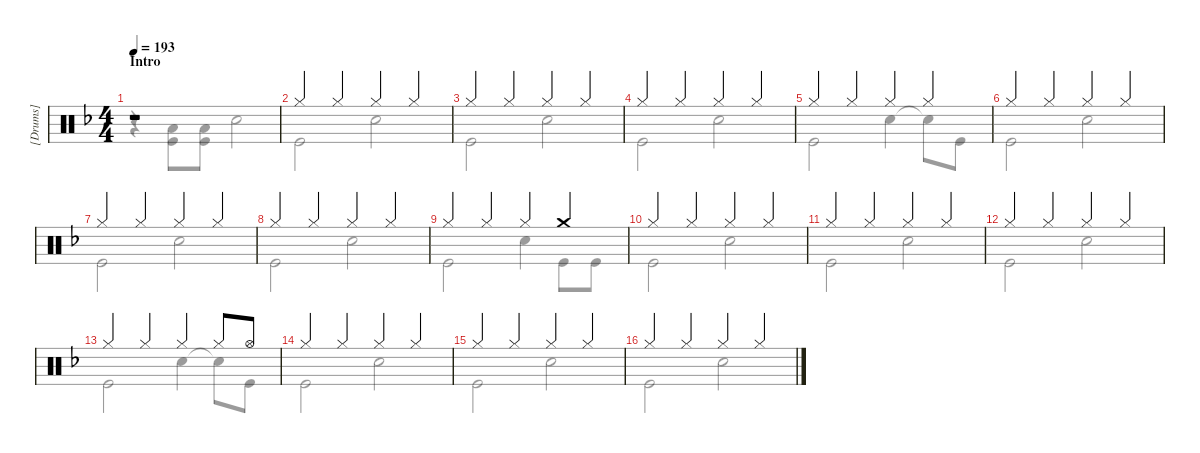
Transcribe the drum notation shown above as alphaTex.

\hideDynamics
\bracketExtendMode groupsimilarinstruments
\firstSystemTrackNameMode fullname
\otherSystemsTrackNameMode fullname
\otherSystemsTrackNameOrientation horizontal
\track ("[Drums]" "Drums") {instrument percussion}
\staff {score}
\articulation defaults
\voice
\ts (4 4)
\beaming (8 2 2 2 2)
\section ("" "Intro")
\tempo 193
\clef neutral
\ks f
r.1{dy ff} |
"Hi-Hat (closed)".4 "Hi-Hat (closed)".4 "Hi-Hat (closed)".4 "Hi-Hat (closed)".4 |
"Hi-Hat (closed)".4 "Hi-Hat (closed)".4 "Hi-Hat (closed)".4 "Hi-Hat (closed)".4 |
"Hi-Hat (closed)".4 "Hi-Hat (closed)".4 "Hi-Hat (closed)".4 "Hi-Hat (closed)".4 |
"Hi-Hat (closed)".4 "Hi-Hat (closed)".4 "Hi-Hat (closed)".4 "Hi-Hat (closed)".4 |
"Hi-Hat (closed)".4 "Hi-Hat (closed)".4 "Hi-Hat (closed)".4 "Hi-Hat (closed)".4 |
"Hi-Hat (closed)".4 "Hi-Hat (closed)".4 "Hi-Hat (closed)".4 "Hi-Hat (closed)".4 |
"Hi-Hat (closed)".4 "Hi-Hat (closed)".4 "Hi-Hat (closed)".4 "Hi-Hat (closed)".4 |
"Hi-Hat (closed)".4 "Hi-Hat (closed)".4 "Hi-Hat (closed)".4 "Crash medium (hit)".4 |
"Hi-Hat (closed)".4 "Hi-Hat (closed)".4 "Hi-Hat (closed)".4 "Hi-Hat (closed)".4 |
"Hi-Hat (closed)".4 "Hi-Hat (closed)".4 "Hi-Hat (closed)".4 "Hi-Hat (closed)".4 |
"Hi-Hat (closed)".4 "Hi-Hat (closed)".4 "Hi-Hat (closed)".4 "Hi-Hat (closed)".4 |
"Hi-Hat (closed)".4 "Hi-Hat (closed)".4 "Hi-Hat (closed)".4 "Hi-Hat (closed)".8 "Hi-Hat (open)".8 |
"Hi-Hat (closed)".4 "Hi-Hat (closed)".4 "Hi-Hat (closed)".4 "Hi-Hat (closed)".4 |
"Hi-Hat (closed)".4 "Hi-Hat (closed)".4 "Hi-Hat (closed)".4 "Hi-Hat (closed)".4 |
"Hi-Hat (closed)".4 "Hi-Hat (closed)".4 "Hi-Hat (closed)".4 "Hi-Hat (closed)".4
\voice
\clef neutral
\ottava regular
\simile none
\ks f
r.4{dy f} ("Kick (hit)" "Low Tom (hit)").8 ("Kick (hit)" "Low Tom (hit)").8 "Snare (hit) 2".2 |
"Kick (hit)".2 "Snare (hit) 2".2 |
"Kick (hit)".2 "Snare (hit) 2".2 |
"Kick (hit)".2 "Snare (hit) 2".2 |
"Kick (hit)".2 "Snare (hit) 2".4 "Snare (hit) 2"{t}.8 "Kick (hit)".8 |
"Kick (hit)".2 "Snare (hit) 2".2 |
"Kick (hit)".2 "Snare (hit) 2".2 |
"Kick (hit)".2 "Snare (hit) 2".2 |
"Kick (hit)".2 "Snare (hit) 2".4 "Kick (hit)".8 "Kick (hit)".8 |
"Kick (hit)".2 "Snare (hit) 2".2 |
"Kick (hit)".2 "Snare (hit) 2".2 |
"Kick (hit)".2 "Snare (hit) 2".2 |
"Kick (hit)".2 "Snare (hit) 2".4 "Snare (hit) 2"{t}.8 "Kick (hit)".8 |
"Kick (hit)".2 "Snare (hit) 2".2 |
"Kick (hit)".2 "Snare (hit) 2".2 |
"Kick (hit)".2 "Snare (hit) 2".2
